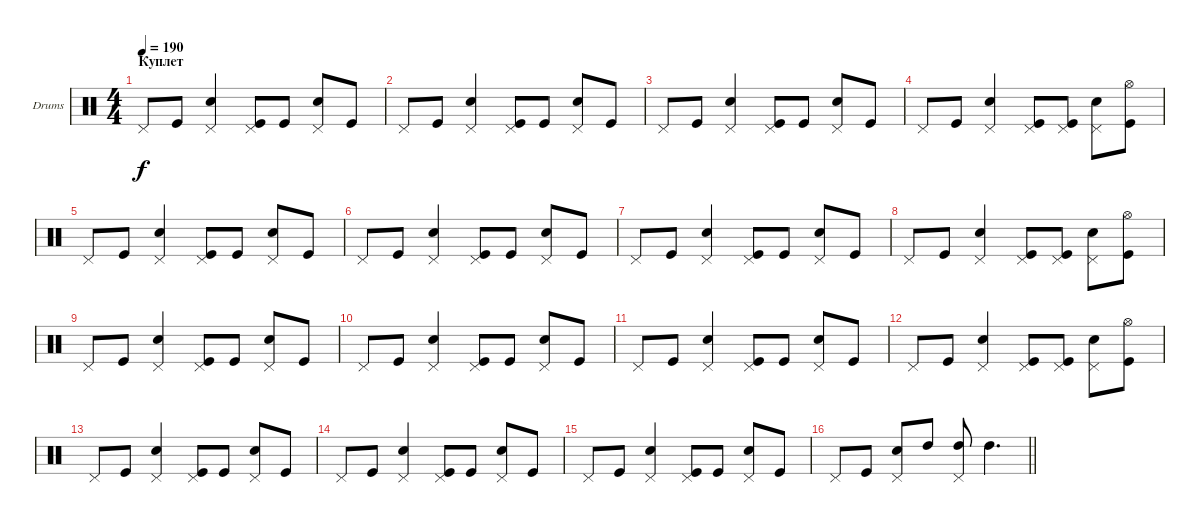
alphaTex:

\bracketExtendMode groupsimilarinstruments
\firstSystemTrackNameOrientation horizontal
\otherSystemsTrackNameOrientation horizontal
\track ("Максим Удалов" "Drums") {instrument percussion}
\staff {score}
\articulation defaults
\ts (4 4)
\section ("" "Куплет")
\tempo 190
\clef neutral
\ks c "Pedal Hi-Hat (hit)".8{dy f} "Kick (hit)".8
("Snare (hit) 2" "Pedal Hi-Hat (hit)").4 ("Kick (hit)" "Pedal Hi-Hat (hit)").8 "Kick (hit)".8 ("Snare (hit) 2" "Pedal Hi-Hat (hit)").8 "Kick (hit)".8 |
"Pedal Hi-Hat (hit)".8 "Kick (hit)".8 ("Snare (hit) 2" "Pedal Hi-Hat (hit)").4 ("Kick (hit)" "Pedal Hi-Hat (hit)").8 "Kick (hit)".8 ("Snare (hit) 2" "Pedal Hi-Hat (hit)").8 "Kick (hit)".8 |
"Pedal Hi-Hat (hit)".8 "Kick (hit)".8 ("Snare (hit) 2" "Pedal Hi-Hat (hit)").4 ("Kick (hit)" "Pedal Hi-Hat (hit)").8 "Kick (hit)".8 ("Snare (hit) 2" "Pedal Hi-Hat (hit)").8 "Kick (hit)".8 |
"Pedal Hi-Hat (hit)".8 "Kick (hit)".8 ("Snare (hit) 2" "Pedal Hi-Hat (hit)").4 ("Kick (hit)" "Pedal Hi-Hat (hit)").8 ("Kick (hit)" "Pedal Hi-Hat (hit)").8 ("Snare (hit) 2" "Pedal Hi-Hat (hit)").8 ("Kick (hit)" "Hi-Hat (open)").8 |
"Pedal Hi-Hat (hit)".8 "Kick (hit)".8 ("Snare (hit) 2" "Pedal Hi-Hat (hit)").4 ("Kick (hit)" "Pedal Hi-Hat (hit)").8 "Kick (hit)".8 ("Snare (hit) 2" "Pedal Hi-Hat (hit)").8 "Kick (hit)".8 |
"Pedal Hi-Hat (hit)".8 "Kick (hit)".8 ("Snare (hit) 2" "Pedal Hi-Hat (hit)").4 ("Kick (hit)" "Pedal Hi-Hat (hit)").8 "Kick (hit)".8 ("Snare (hit) 2" "Pedal Hi-Hat (hit)").8 "Kick (hit)".8 |
"Pedal Hi-Hat (hit)".8 "Kick (hit)".8 ("Snare (hit) 2" "Pedal Hi-Hat (hit)").4 ("Kick (hit)" "Pedal Hi-Hat (hit)").8 "Kick (hit)".8 ("Snare (hit) 2" "Pedal Hi-Hat (hit)").8 "Kick (hit)".8 |
"Pedal Hi-Hat (hit)".8 "Kick (hit)".8 ("Snare (hit) 2" "Pedal Hi-Hat (hit)").4 ("Kick (hit)" "Pedal Hi-Hat (hit)").8 ("Kick (hit)" "Pedal Hi-Hat (hit)").8 ("Snare (hit) 2" "Pedal Hi-Hat (hit)").8 ("Kick (hit)" "Hi-Hat (open)").8 |
"Pedal Hi-Hat (hit)".8 "Kick (hit)".8 ("Snare (hit) 2" "Pedal Hi-Hat (hit)").4 ("Kick (hit)" "Pedal Hi-Hat (hit)").8 "Kick (hit)".8 ("Snare (hit) 2" "Pedal Hi-Hat (hit)").8 "Kick (hit)".8 |
"Pedal Hi-Hat (hit)".8 "Kick (hit)".8 ("Snare (hit) 2" "Pedal Hi-Hat (hit)").4 ("Kick (hit)" "Pedal Hi-Hat (hit)").8 "Kick (hit)".8 ("Snare (hit) 2" "Pedal Hi-Hat (hit)").8 "Kick (hit)".8 |
"Pedal Hi-Hat (hit)".8 "Kick (hit)".8 ("Snare (hit) 2" "Pedal Hi-Hat (hit)").4 ("Kick (hit)" "Pedal Hi-Hat (hit)").8 "Kick (hit)".8 ("Snare (hit) 2" "Pedal Hi-Hat (hit)").8 "Kick (hit)".8 |
"Pedal Hi-Hat (hit)".8 "Kick (hit)".8 ("Snare (hit) 2" "Pedal Hi-Hat (hit)").4 ("Kick (hit)" "Pedal Hi-Hat (hit)").8 ("Kick (hit)" "Pedal Hi-Hat (hit)").8 ("Snare (hit) 2" "Pedal Hi-Hat (hit)").8 ("Kick (hit)" "Hi-Hat (open)").8 |
"Pedal Hi-Hat (hit)".8 "Kick (hit)".8 ("Snare (hit) 2" "Pedal Hi-Hat (hit)").4 ("Kick (hit)" "Pedal Hi-Hat (hit)").8 "Kick (hit)".8 ("Snare (hit) 2" "Pedal Hi-Hat (hit)").8 "Kick (hit)".8 |
"Pedal Hi-Hat (hit)".8 "Kick (hit)".8 ("Snare (hit) 2" "Pedal Hi-Hat (hit)").4 ("Kick (hit)" "Pedal Hi-Hat (hit)").8 "Kick (hit)".8 ("Snare (hit) 2" "Pedal Hi-Hat (hit)").8 "Kick (hit)".8 |
"Pedal Hi-Hat (hit)".8 "Kick (hit)".8 ("Snare (hit) 2" "Pedal Hi-Hat (hit)").4 ("Kick (hit)" "Pedal Hi-Hat (hit)").8 "Kick (hit)".8 ("Snare (hit) 2" "Pedal Hi-Hat (hit)").8 "Kick (hit)".8 |
\barLineRight lightlight "Pedal Hi-Hat (hit)".8 "Kick (hit)".8
("Snare (hit) 2" "Pedal Hi-Hat (hit)").8 "High Tom (hit)".8 ("High Tom (hit)" "Pedal Hi-Hat (hit)").8 "High Tom (hit)".4{d}
